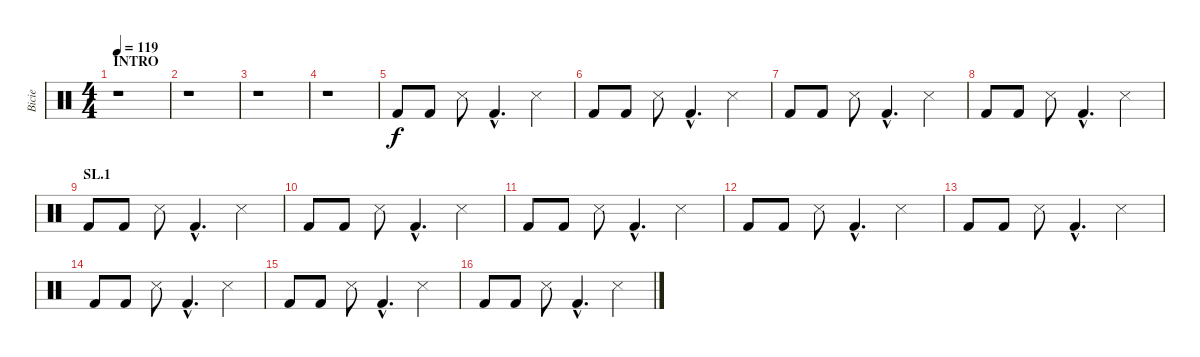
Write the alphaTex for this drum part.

\track ("Bicie" "Bicie") {instrument percussion}
\staff {score}
\articulation defaults
\ts (4 4)
\section ("" "INTRO")
\tempo 119
\clef neutral
\ks c
r.1{dy f} |
r.1 |
r.1 |
r.1 |
"Kick (hit) 2".8 "Kick (hit) 2".8 "Metronome (hit)".8 "Kick (hit) 2"{hac}.4{d} "Metronome (hit)".4 |
"Kick (hit) 2".8 "Kick (hit) 2".8 "Metronome (hit)".8 "Kick (hit) 2"{hac}.4{d} "Metronome (hit)".4 |
"Kick (hit) 2".8 "Kick (hit) 2".8 "Metronome (hit)".8 "Kick (hit) 2"{hac}.4{d} "Metronome (hit)".4 |
"Kick (hit) 2".8 "Kick (hit) 2".8 "Metronome (hit)".8 "Kick (hit) 2"{hac}.4{d} "Metronome (hit)".4 |
\section ("" "SL.1")
"Kick (hit) 2".8 "Kick (hit) 2".8 "Metronome (hit)".8 "Kick (hit) 2"{hac}.4{d} "Metronome (hit)".4 |
"Kick (hit) 2".8 "Kick (hit) 2".8 "Metronome (hit)".8 "Kick (hit) 2"{hac}.4{d} "Metronome (hit)".4 |
"Kick (hit) 2".8 "Kick (hit) 2".8 "Metronome (hit)".8 "Kick (hit) 2"{hac}.4{d} "Metronome (hit)".4 |
"Kick (hit) 2".8 "Kick (hit) 2".8 "Metronome (hit)".8 "Kick (hit) 2"{hac}.4{d} "Metronome (hit)".4 |
"Kick (hit) 2".8 "Kick (hit) 2".8 "Metronome (hit)".8 "Kick (hit) 2"{hac}.4{d} "Metronome (hit)".4 |
"Kick (hit) 2".8 "Kick (hit) 2".8 "Metronome (hit)".8 "Kick (hit) 2"{hac}.4{d} "Metronome (hit)".4 |
"Kick (hit) 2".8 "Kick (hit) 2".8 "Metronome (hit)".8 "Kick (hit) 2"{hac}.4{d} "Metronome (hit)".4 |
"Kick (hit) 2".8 "Kick (hit) 2".8 "Metronome (hit)".8 "Kick (hit) 2"{hac}.4{d} "Metronome (hit)".4
